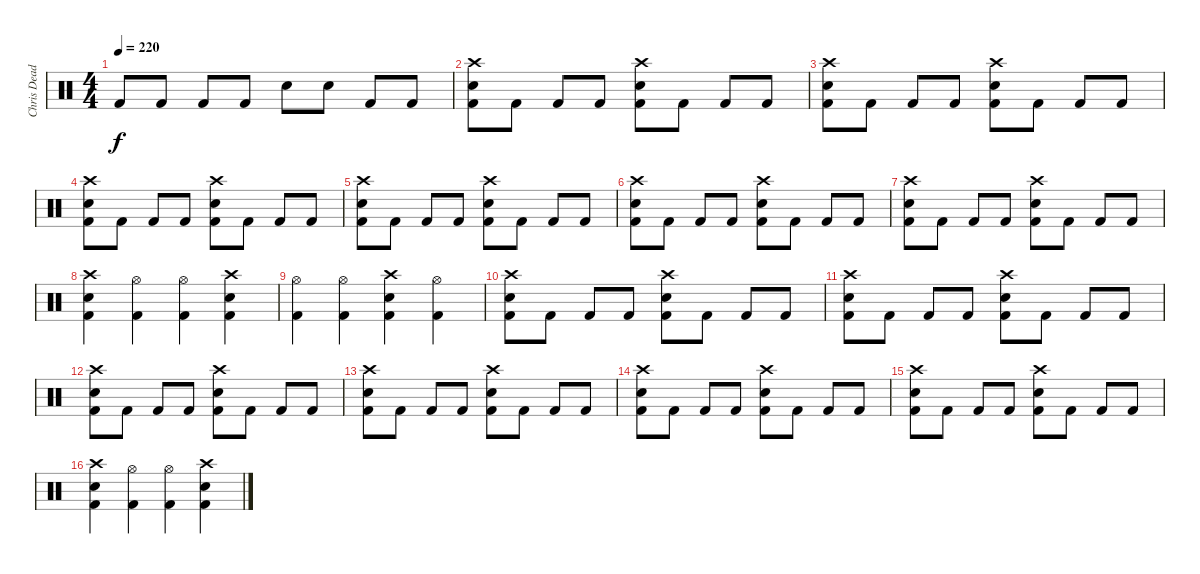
\track ("Chris Dead" "Chris Dead") {instrument percussion}
\staff {score}
\articulation defaults
\ts (4 4)
\tempo 220
\clef neutral
\ks c "Kick (hit) 2".8{dy f} "Kick (hit) 2".8 "Kick (hit) 2".8 "Kick (hit) 2".8 "Electric Snare (hit)".8 "Electric Snare (hit)".8 "Kick (hit) 2".8 "Kick (hit) 2".8
|
("Crash high (hit)" "Electric Snare (hit)" "Kick (hit) 2").8 "Kick (hit) 2".8 "Kick (hit) 2".8 "Kick (hit) 2".8 ("Crash high (hit)" "Electric Snare (hit)" "Kick (hit) 2").8 "Kick (hit) 2".8 "Kick (hit) 2".8 "Kick (hit) 2".8 |
("Crash high (hit)" "Electric Snare (hit)" "Kick (hit) 2").8 "Kick (hit) 2".8 "Kick (hit) 2".8 "Kick (hit) 2".8 ("Crash high (hit)" "Electric Snare (hit)" "Kick (hit) 2").8 "Kick (hit) 2".8 "Kick (hit) 2".8 "Kick (hit) 2".8 |
("Crash high (hit)" "Electric Snare (hit)" "Kick (hit) 2").8 "Kick (hit) 2".8 "Kick (hit) 2".8 "Kick (hit) 2".8 ("Crash high (hit)" "Electric Snare (hit)" "Kick (hit) 2").8 "Kick (hit) 2".8 "Kick (hit) 2".8 "Kick (hit) 2".8 |
("Crash high (hit)" "Electric Snare (hit)" "Kick (hit) 2").8 "Kick (hit) 2".8 "Kick (hit) 2".8 "Kick (hit) 2".8 ("Crash high (hit)" "Electric Snare (hit)" "Kick (hit) 2").8 "Kick (hit) 2".8 "Kick (hit) 2".8 "Kick (hit) 2".8 |
("Crash high (hit)" "Electric Snare (hit)" "Kick (hit) 2").8 "Kick (hit) 2".8 "Kick (hit) 2".8 "Kick (hit) 2".8 ("Crash high (hit)" "Electric Snare (hit)" "Kick (hit) 2").8 "Kick (hit) 2".8 "Kick (hit) 2".8 "Kick (hit) 2".8 |
("Crash high (hit)" "Electric Snare (hit)" "Kick (hit) 2").8 "Kick (hit) 2".8 "Kick (hit) 2".8 "Kick (hit) 2".8 ("Crash high (hit)" "Electric Snare (hit)" "Kick (hit) 2").8 "Kick (hit) 2".8 "Kick (hit) 2".8 "Kick (hit) 2".8 |
("Crash high (hit)" "Electric Snare (hit)" "Kick (hit) 2").4 ("Hi-Hat (open)" "Kick (hit) 2").4 ("Hi-Hat (open)" "Kick (hit) 2").4 ("Crash high (hit)" "Electric Snare (hit)" "Kick (hit) 2").4 |
("Hi-Hat (open)" "Kick (hit) 2").4 ("Hi-Hat (open)" "Kick (hit) 2").4 ("Crash high (hit)" "Electric Snare (hit)" "Kick (hit) 2").4 ("Hi-Hat (open)" "Kick (hit) 2").4 |
("Crash high (hit)" "Electric Snare (hit)" "Kick (hit) 2").8 "Kick (hit) 2".8 "Kick (hit) 2".8 "Kick (hit) 2".8 ("Crash high (hit)" "Electric Snare (hit)" "Kick (hit) 2").8 "Kick (hit) 2".8 "Kick (hit) 2".8 "Kick (hit) 2".8 |
("Crash high (hit)" "Electric Snare (hit)" "Kick (hit) 2").8 "Kick (hit) 2".8 "Kick (hit) 2".8 "Kick (hit) 2".8 ("Crash high (hit)" "Electric Snare (hit)" "Kick (hit) 2").8 "Kick (hit) 2".8 "Kick (hit) 2".8 "Kick (hit) 2".8 |
("Crash high (hit)" "Electric Snare (hit)" "Kick (hit) 2").8 "Kick (hit) 2".8 "Kick (hit) 2".8 "Kick (hit) 2".8 ("Crash high (hit)" "Electric Snare (hit)" "Kick (hit) 2").8 "Kick (hit) 2".8 "Kick (hit) 2".8 "Kick (hit) 2".8 |
("Crash high (hit)" "Electric Snare (hit)" "Kick (hit) 2").8 "Kick (hit) 2".8 "Kick (hit) 2".8 "Kick (hit) 2".8 ("Crash high (hit)" "Electric Snare (hit)" "Kick (hit) 2").8 "Kick (hit) 2".8 "Kick (hit) 2".8 "Kick (hit) 2".8 |
("Crash high (hit)" "Electric Snare (hit)" "Kick (hit) 2").8 "Kick (hit) 2".8 "Kick (hit) 2".8 "Kick (hit) 2".8 ("Crash high (hit)" "Electric Snare (hit)" "Kick (hit) 2").8 "Kick (hit) 2".8 "Kick (hit) 2".8 "Kick (hit) 2".8 |
("Crash high (hit)" "Electric Snare (hit)" "Kick (hit) 2").8 "Kick (hit) 2".8 "Kick (hit) 2".8 "Kick (hit) 2".8 ("Crash high (hit)" "Electric Snare (hit)" "Kick (hit) 2").8 "Kick (hit) 2".8 "Kick (hit) 2".8 "Kick (hit) 2".8 |
("Crash high (hit)" "Electric Snare (hit)" "Kick (hit) 2").4 ("Hi-Hat (open)" "Kick (hit) 2").4 ("Hi-Hat (open)" "Kick (hit) 2").4 ("Crash high (hit)" "Electric Snare (hit)" "Kick (hit) 2").4
